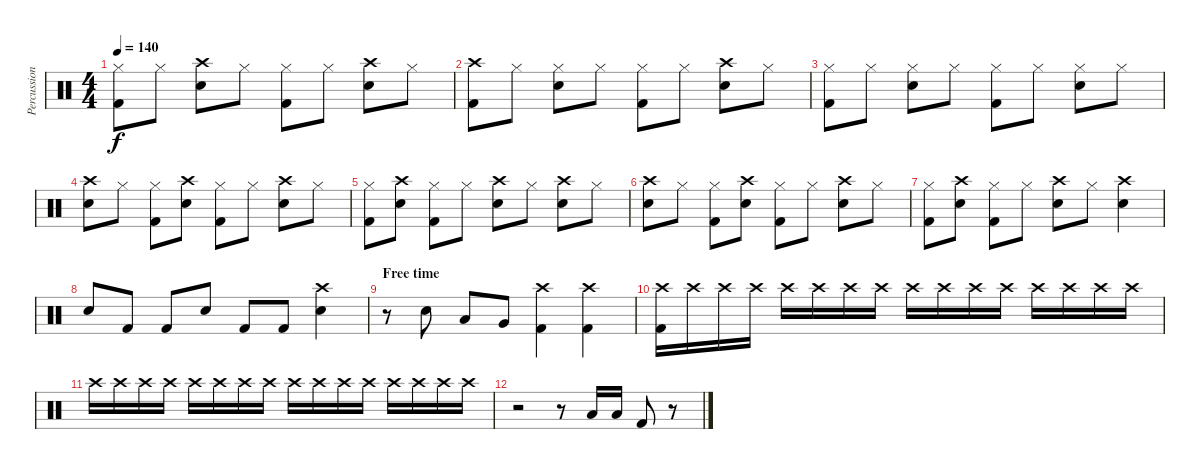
\track ("Percussion" "Percussion") {instrument percussion}
\staff {score}
\articulation defaults
\ts (4 4)
\tempo 140
\clef neutral
\ks c
("Hi-Hat (closed)" "Kick (hit) 2").8{dy f} "Hi-Hat (closed)".8 ("Crash high (hit)" "Snare (hit) 2").8 "Hi-Hat (closed)".8 ("Hi-Hat (closed)" "Kick (hit) 2").8 "Hi-Hat (closed)".8 ("Crash high (hit)" "Snare (hit) 2").8 "Hi-Hat (closed)".8 |
("Crash high (hit)" "Kick (hit) 2").8 "Hi-Hat (closed)".8 ("Hi-Hat (closed)" "Snare (hit) 2").8 "Hi-Hat (closed)".8 ("Hi-Hat (closed)" "Kick (hit) 2").8 "Hi-Hat (closed)".8 ("Crash high (hit)" "Snare (hit) 2").8 "Hi-Hat (closed)".8 |
("Hi-Hat (closed)" "Kick (hit) 2").8 "Hi-Hat (closed)".8 ("Hi-Hat (closed)" "Snare (hit) 2").8 "Hi-Hat (closed)".8 ("Hi-Hat (closed)" "Kick (hit) 2").8 "Hi-Hat (closed)".8 ("Hi-Hat (closed)" "Snare (hit) 2").8 "Hi-Hat (closed)".8 |
("Crash high (hit)" "Snare (hit) 2").8 "Hi-Hat (closed)".8 ("Hi-Hat (closed)" "Kick (hit) 2").8 ("Crash high (hit)" "Snare (hit) 2").8 ("Hi-Hat (closed)" "Kick (hit) 2").8 "Hi-Hat (closed)".8 ("Crash high (hit)" "Snare (hit) 2").8 "Hi-Hat (closed)".8 |
("Hi-Hat (closed)" "Kick (hit) 2").8 ("Crash high (hit)" "Snare (hit) 2").8 ("Hi-Hat (closed)" "Kick (hit) 2").8 "Hi-Hat (closed)".8 ("Crash high (hit)" "Snare (hit) 2").8 "Hi-Hat (closed)".8 ("Crash high (hit)" "Snare (hit) 2").8 "Hi-Hat (closed)".8 |
("Crash high (hit)" "Snare (hit) 2").8 "Hi-Hat (closed)".8 ("Hi-Hat (closed)" "Kick (hit) 2").8 ("Crash high (hit)" "Snare (hit) 2").8 ("Hi-Hat (closed)" "Kick (hit) 2").8 "Hi-Hat (closed)".8 ("Crash high (hit)" "Snare (hit) 2").8 "Hi-Hat (closed)".8 |
("Hi-Hat (closed)" "Kick (hit) 2").8 ("Crash high (hit)" "Snare (hit) 2").8 ("Hi-Hat (closed)" "Kick (hit) 2").8 "Hi-Hat (closed)".8 ("Crash high (hit)" "Snare (hit) 2").8 "Hi-Hat (closed)".8 ("Crash high (hit)" "Snare (hit) 2").4 |
"Snare (hit) 2".8 "Kick (hit) 2".8 "Kick (hit) 2".8 "Snare (hit) 2".8 "Kick (hit) 2".8 "Kick (hit) 2".8 ("Crash high (hit)" "Snare (hit) 2").4 |
\section ("" "Free time")
r.8 "Snare (hit) 2".8 "Low Tom (hit)".8 "Very Low Tom (hit)".8 ("Crash high (hit)" "Kick (hit) 2").4 ("Crash high (hit)" "Kick (hit) 2").4 |
("Crash high (hit)" "Kick (hit) 2").16 "Crash high (hit)".16 "Crash high (hit)".16 "Crash high (hit)".16 "Crash high (hit)".16 "Crash high (hit)".16 "Crash high (hit)".16 "Crash high (hit)".16 "Crash high (hit)".16 "Crash high (hit)".16 "Crash high (hit)".16 "Crash high (hit)".16 "Crash high (hit)".16 "Crash high (hit)".16 "Crash high (hit)".16 "Crash high (hit)".16 |
"Crash high (hit)".16 "Crash high (hit)".16 "Crash high (hit)".16 "Crash high (hit)".16 "Crash high (hit)".16 "Crash high (hit)".16 "Crash high (hit)".16 "Crash high (hit)".16 "Crash high (hit)".16 "Crash high (hit)".16 "Crash high (hit)".16 "Crash high (hit)".16 "Crash high (hit)".16 "Crash high (hit)".16 "Crash high (hit)".16 "Crash high (hit)".16 |
r.2 r.8 "Low Tom (hit)".16 "Low Tom (hit)".16 "Kick (hit) 2".8 r.8
